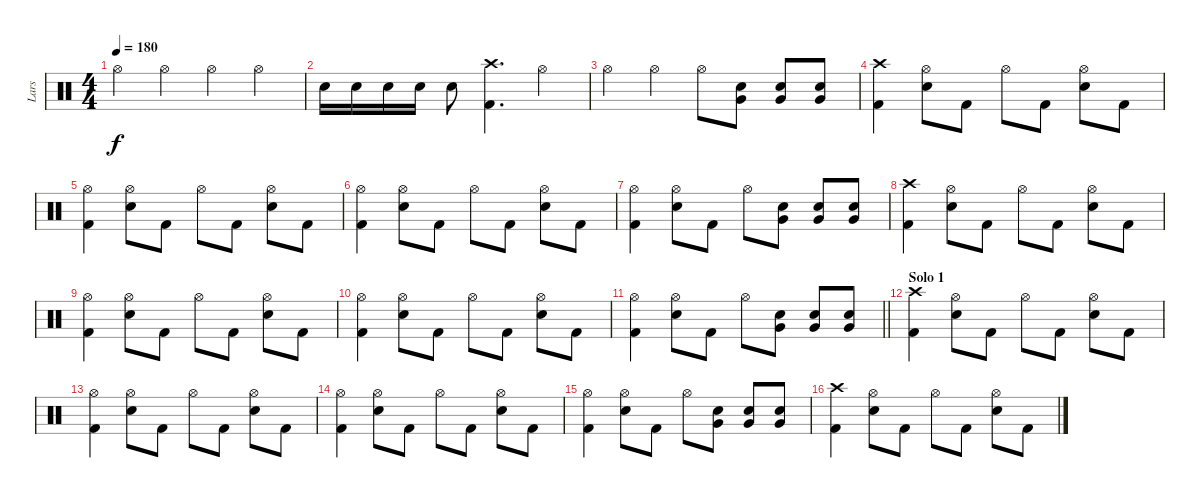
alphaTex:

\track ("Lars" "Lars") {instrument percussion}
\staff {score}
\articulation defaults
\ts (4 4)
\tempo 180
\clef neutral
\ks c "Hi-Hat (open)".4{dy f} "Hi-Hat (open)".4 "Hi-Hat (open)".4 "Hi-Hat (open)".4
|
"Electric Snare (hit)".16 "Electric Snare (hit)".16 "Electric Snare (hit)".16 "Electric Snare (hit)".16 "Electric Snare (hit)".8 ("Crash high (hit)" "Kick (hit) 2").4{d} "Hi-Hat (open)".4 |
"Hi-Hat (open)".4 "Hi-Hat (open)".4 "Hi-Hat (open)".8 ("Very Low Tom (hit)" "Electric Snare (hit)").8 ("Very Low Tom (hit)" "Electric Snare (hit)").8 ("Very Low Tom (hit)" "Electric Snare (hit)").8 |
("Crash high (hit)" "Kick (hit) 2").4 ("Hi-Hat (open)" "Electric Snare (hit)").8 "Kick (hit) 2".8 "Hi-Hat (open)".8 "Kick (hit) 2".8 ("Hi-Hat (open)" "Electric Snare (hit)").8 "Kick (hit) 2".8 |
("Hi-Hat (open)" "Kick (hit) 2").4 ("Hi-Hat (open)" "Electric Snare (hit)").8 "Kick (hit) 2".8 "Hi-Hat (open)".8 "Kick (hit) 2".8 ("Hi-Hat (open)" "Electric Snare (hit)").8 "Kick (hit) 2".8 |
("Hi-Hat (open)" "Kick (hit) 2").4 ("Hi-Hat (open)" "Electric Snare (hit)").8 "Kick (hit) 2".8 "Hi-Hat (open)".8 "Kick (hit) 2".8 ("Hi-Hat (open)" "Electric Snare (hit)").8 "Kick (hit) 2".8 |
("Hi-Hat (open)" "Kick (hit) 2").4 ("Hi-Hat (open)" "Electric Snare (hit)").8 "Kick (hit) 2".8 "Hi-Hat (open)".8 ("Very Low Tom (hit)" "Electric Snare (hit)").8 ("Very Low Tom (hit)" "Electric Snare (hit)").8 ("Very Low Tom (hit)" "Electric Snare (hit)").8 |
("Crash high (hit)" "Kick (hit) 2").4 ("Hi-Hat (open)" "Electric Snare (hit)").8 "Kick (hit) 2".8 "Hi-Hat (open)".8 "Kick (hit) 2".8 ("Hi-Hat (open)" "Electric Snare (hit)").8 "Kick (hit) 2".8 |
("Hi-Hat (open)" "Kick (hit) 2").4 ("Hi-Hat (open)" "Electric Snare (hit)").8 "Kick (hit) 2".8 "Hi-Hat (open)".8 "Kick (hit) 2".8 ("Hi-Hat (open)" "Electric Snare (hit)").8 "Kick (hit) 2".8 |
("Hi-Hat (open)" "Kick (hit) 2").4 ("Hi-Hat (open)" "Electric Snare (hit)").8 "Kick (hit) 2".8 "Hi-Hat (open)".8 "Kick (hit) 2".8 ("Hi-Hat (open)" "Electric Snare (hit)").8 "Kick (hit) 2".8 |
\barLineRight lightlight
("Hi-Hat (open)" "Kick (hit) 2").4 ("Hi-Hat (open)" "Electric Snare (hit)").8 "Kick (hit) 2".8 "Hi-Hat (open)".8 ("Very Low Tom (hit)" "Electric Snare (hit)").8 ("Very Low Tom (hit)" "Electric Snare (hit)").8 ("Very Low Tom (hit)" "Electric Snare (hit)").8 |
\section ("" "Solo 1")
("Crash high (hit)" "Kick (hit) 2").4 ("Hi-Hat (open)" "Electric Snare (hit)").8 "Kick (hit) 2".8 "Hi-Hat (open)".8 "Kick (hit) 2".8 ("Hi-Hat (open)" "Electric Snare (hit)").8 "Kick (hit) 2".8 |
("Hi-Hat (open)" "Kick (hit) 2").4 ("Hi-Hat (open)" "Electric Snare (hit)").8 "Kick (hit) 2".8 "Hi-Hat (open)".8 "Kick (hit) 2".8 ("Hi-Hat (open)" "Electric Snare (hit)").8 "Kick (hit) 2".8 |
("Hi-Hat (open)" "Kick (hit) 2").4 ("Hi-Hat (open)" "Electric Snare (hit)").8 "Kick (hit) 2".8 "Hi-Hat (open)".8 "Kick (hit) 2".8 ("Hi-Hat (open)" "Electric Snare (hit)").8 "Kick (hit) 2".8 |
("Hi-Hat (open)" "Kick (hit) 2").4 ("Hi-Hat (open)" "Electric Snare (hit)").8 "Kick (hit) 2".8 "Hi-Hat (open)".8 ("Very Low Tom (hit)" "Electric Snare (hit)").8 ("Very Low Tom (hit)" "Electric Snare (hit)").8 ("Very Low Tom (hit)" "Electric Snare (hit)").8 |
("Crash high (hit)" "Kick (hit) 2").4 ("Hi-Hat (open)" "Electric Snare (hit)").8 "Kick (hit) 2".8 "Hi-Hat (open)".8 "Kick (hit) 2".8 ("Hi-Hat (open)" "Electric Snare (hit)").8 "Kick (hit) 2".8
